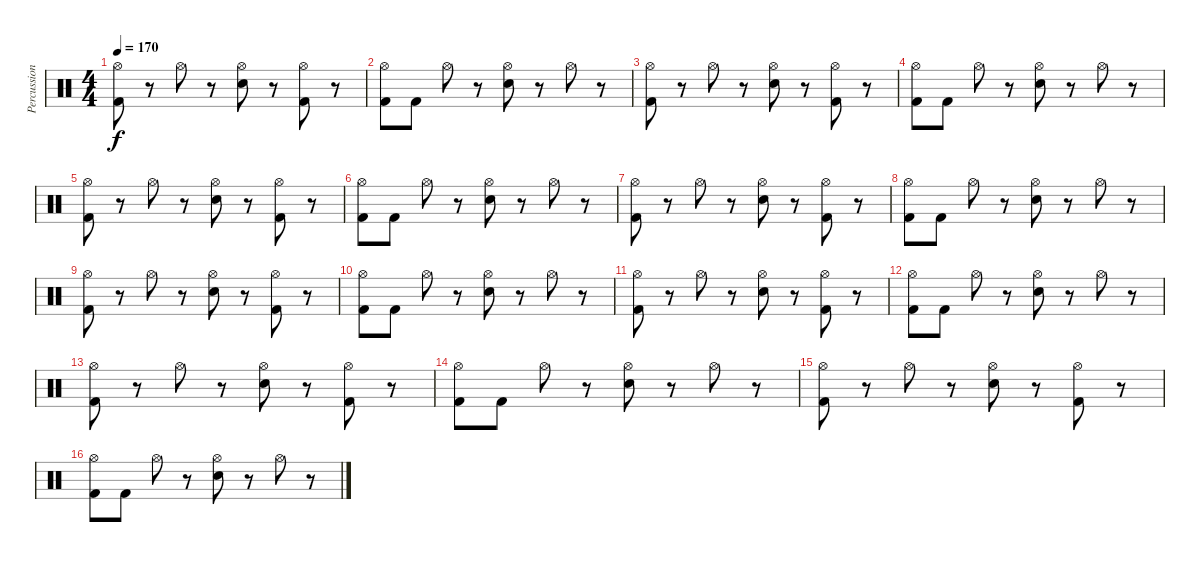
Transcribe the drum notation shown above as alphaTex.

\track ("Percussions" "Percussion") {instrument percussion}
\staff {score}
\articulation defaults
\ts (4 4)
\tempo 170
\clef neutral
\ks c
("Kick (hit) 2" "Hi-Hat (open)").8{dy f} r.8 "Hi-Hat (open)".8 r.8 ("Electric Snare (hit)" "Hi-Hat (open)").8 r.8 ("Kick (hit) 2" "Hi-Hat (open)").8 r.8 |
("Kick (hit) 2" "Hi-Hat (open)").8 "Kick (hit) 2".8 "Hi-Hat (open)".8 r.8 ("Electric Snare (hit)" "Hi-Hat (open)").8 r.8 "Hi-Hat (open)".8 r.8 |
("Kick (hit) 2" "Hi-Hat (open)").8 r.8 "Hi-Hat (open)".8 r.8 ("Electric Snare (hit)" "Hi-Hat (open)").8 r.8 ("Kick (hit) 2" "Hi-Hat (open)").8 r.8 |
("Kick (hit) 2" "Hi-Hat (open)").8 "Kick (hit) 2".8 "Hi-Hat (open)".8 r.8 ("Electric Snare (hit)" "Hi-Hat (open)").8 r.8 "Hi-Hat (open)".8 r.8 |
("Kick (hit) 2" "Hi-Hat (open)").8 r.8 "Hi-Hat (open)".8 r.8 ("Electric Snare (hit)" "Hi-Hat (open)").8 r.8 ("Kick (hit) 2" "Hi-Hat (open)").8 r.8 |
("Kick (hit) 2" "Hi-Hat (open)").8 "Kick (hit) 2".8 "Hi-Hat (open)".8 r.8 ("Electric Snare (hit)" "Hi-Hat (open)").8 r.8 "Hi-Hat (open)".8 r.8 |
("Kick (hit) 2" "Hi-Hat (open)").8 r.8 "Hi-Hat (open)".8 r.8 ("Electric Snare (hit)" "Hi-Hat (open)").8 r.8 ("Kick (hit) 2" "Hi-Hat (open)").8 r.8 |
("Kick (hit) 2" "Hi-Hat (open)").8 "Kick (hit) 2".8 "Hi-Hat (open)".8 r.8 ("Electric Snare (hit)" "Hi-Hat (open)").8 r.8 "Hi-Hat (open)".8 r.8 |
("Kick (hit) 2" "Hi-Hat (open)").8 r.8 "Hi-Hat (open)".8 r.8 ("Electric Snare (hit)" "Hi-Hat (open)").8 r.8 ("Kick (hit) 2" "Hi-Hat (open)").8 r.8 |
("Kick (hit) 2" "Hi-Hat (open)").8 "Kick (hit) 2".8 "Hi-Hat (open)".8 r.8 ("Electric Snare (hit)" "Hi-Hat (open)").8 r.8 "Hi-Hat (open)".8 r.8 |
("Kick (hit) 2" "Hi-Hat (open)").8 r.8 "Hi-Hat (open)".8 r.8 ("Electric Snare (hit)" "Hi-Hat (open)").8 r.8 ("Kick (hit) 2" "Hi-Hat (open)").8 r.8 |
("Kick (hit) 2" "Hi-Hat (open)").8 "Kick (hit) 2".8 "Hi-Hat (open)".8 r.8 ("Electric Snare (hit)" "Hi-Hat (open)").8 r.8 "Hi-Hat (open)".8 r.8 |
("Kick (hit) 2" "Hi-Hat (open)").8 r.8 "Hi-Hat (open)".8 r.8 ("Electric Snare (hit)" "Hi-Hat (open)").8 r.8 ("Kick (hit) 2" "Hi-Hat (open)").8 r.8 |
("Kick (hit) 2" "Hi-Hat (open)").8 "Kick (hit) 2".8 "Hi-Hat (open)".8 r.8 ("Electric Snare (hit)" "Hi-Hat (open)").8 r.8 "Hi-Hat (open)".8 r.8 |
("Kick (hit) 2" "Hi-Hat (open)").8 r.8 "Hi-Hat (open)".8 r.8 ("Electric Snare (hit)" "Hi-Hat (open)").8 r.8 ("Kick (hit) 2" "Hi-Hat (open)").8 r.8 |
("Kick (hit) 2" "Hi-Hat (open)").8 "Kick (hit) 2".8 "Hi-Hat (open)".8 r.8 ("Electric Snare (hit)" "Hi-Hat (open)").8 r.8 "Hi-Hat (open)".8 r.8
